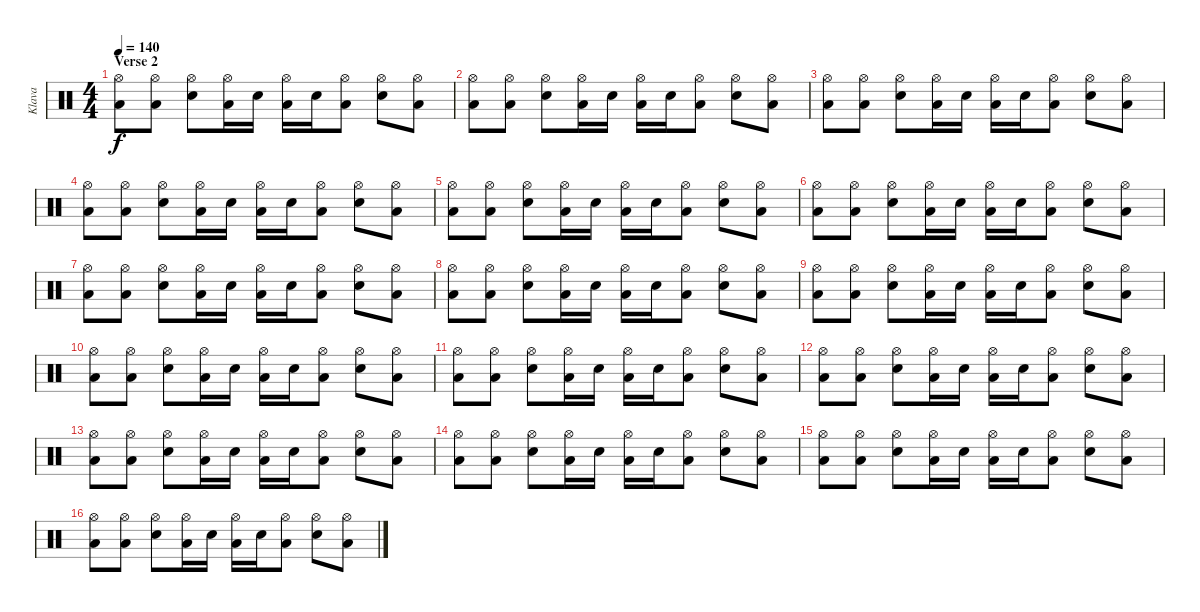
\track ("Klava" "Klava") {instrument percussion}
\staff {score}
\articulation defaults
\ts (4 4)
\section ("" "Verse 2")
\tempo 140
\clef neutral
\ks c
("Low Tom (hit)" "Hi-Hat (open)").8{dy f} ("Low Tom (hit)" "Hi-Hat (open)").8 ("Electric Snare (hit)" "Hi-Hat (open)").8 ("Low Tom (hit)" "Hi-Hat (open)").16 "Electric Snare (hit)".16 ("Low Tom (hit)" "Hi-Hat (open)").16 "Electric Snare (hit)".16 ("Low Tom (hit)" "Hi-Hat (open)").8 ("Electric Snare (hit)" "Hi-Hat (open)").8 ("Low Tom (hit)" "Hi-Hat (open)").8 |
("Low Tom (hit)" "Hi-Hat (open)").8 ("Low Tom (hit)" "Hi-Hat (open)").8 ("Electric Snare (hit)" "Hi-Hat (open)").8 ("Low Tom (hit)" "Hi-Hat (open)").16 "Electric Snare (hit)".16 ("Low Tom (hit)" "Hi-Hat (open)").16 "Electric Snare (hit)".16 ("Low Tom (hit)" "Hi-Hat (open)").8 ("Electric Snare (hit)" "Hi-Hat (open)").8 ("Low Tom (hit)" "Hi-Hat (open)").8 |
("Low Tom (hit)" "Hi-Hat (open)").8 ("Low Tom (hit)" "Hi-Hat (open)").8 ("Electric Snare (hit)" "Hi-Hat (open)").8 ("Low Tom (hit)" "Hi-Hat (open)").16 "Electric Snare (hit)".16 ("Low Tom (hit)" "Hi-Hat (open)").16 "Electric Snare (hit)".16 ("Low Tom (hit)" "Hi-Hat (open)").8 ("Electric Snare (hit)" "Hi-Hat (open)").8 ("Low Tom (hit)" "Hi-Hat (open)").8 |
("Low Tom (hit)" "Hi-Hat (open)").8 ("Low Tom (hit)" "Hi-Hat (open)").8 ("Electric Snare (hit)" "Hi-Hat (open)").8 ("Low Tom (hit)" "Hi-Hat (open)").16 "Electric Snare (hit)".16 ("Low Tom (hit)" "Hi-Hat (open)").16 "Electric Snare (hit)".16 ("Low Tom (hit)" "Hi-Hat (open)").8 ("Electric Snare (hit)" "Hi-Hat (open)").8 ("Low Tom (hit)" "Hi-Hat (open)").8 |
("Low Tom (hit)" "Hi-Hat (open)").8 ("Low Tom (hit)" "Hi-Hat (open)").8 ("Electric Snare (hit)" "Hi-Hat (open)").8 ("Low Tom (hit)" "Hi-Hat (open)").16 "Electric Snare (hit)".16 ("Low Tom (hit)" "Hi-Hat (open)").16 "Electric Snare (hit)".16 ("Low Tom (hit)" "Hi-Hat (open)").8 ("Electric Snare (hit)" "Hi-Hat (open)").8 ("Low Tom (hit)" "Hi-Hat (open)").8 |
("Low Tom (hit)" "Hi-Hat (open)").8 ("Low Tom (hit)" "Hi-Hat (open)").8 ("Electric Snare (hit)" "Hi-Hat (open)").8 ("Low Tom (hit)" "Hi-Hat (open)").16 "Electric Snare (hit)".16 ("Low Tom (hit)" "Hi-Hat (open)").16 "Electric Snare (hit)".16 ("Low Tom (hit)" "Hi-Hat (open)").8 ("Electric Snare (hit)" "Hi-Hat (open)").8 ("Low Tom (hit)" "Hi-Hat (open)").8 |
("Low Tom (hit)" "Hi-Hat (open)").8 ("Low Tom (hit)" "Hi-Hat (open)").8 ("Electric Snare (hit)" "Hi-Hat (open)").8 ("Low Tom (hit)" "Hi-Hat (open)").16 "Electric Snare (hit)".16 ("Low Tom (hit)" "Hi-Hat (open)").16 "Electric Snare (hit)".16 ("Low Tom (hit)" "Hi-Hat (open)").8 ("Electric Snare (hit)" "Hi-Hat (open)").8 ("Low Tom (hit)" "Hi-Hat (open)").8 |
("Low Tom (hit)" "Hi-Hat (open)").8 ("Low Tom (hit)" "Hi-Hat (open)").8 ("Electric Snare (hit)" "Hi-Hat (open)").8 ("Low Tom (hit)" "Hi-Hat (open)").16 "Electric Snare (hit)".16 ("Low Tom (hit)" "Hi-Hat (open)").16 "Electric Snare (hit)".16 ("Low Tom (hit)" "Hi-Hat (open)").8 ("Electric Snare (hit)" "Hi-Hat (open)").8 ("Low Tom (hit)" "Hi-Hat (open)").8 |
("Low Tom (hit)" "Hi-Hat (open)").8 ("Low Tom (hit)" "Hi-Hat (open)").8 ("Electric Snare (hit)" "Hi-Hat (open)").8 ("Low Tom (hit)" "Hi-Hat (open)").16 "Electric Snare (hit)".16 ("Low Tom (hit)" "Hi-Hat (open)").16 "Electric Snare (hit)".16 ("Low Tom (hit)" "Hi-Hat (open)").8 ("Electric Snare (hit)" "Hi-Hat (open)").8 ("Low Tom (hit)" "Hi-Hat (open)").8 |
("Low Tom (hit)" "Hi-Hat (open)").8 ("Low Tom (hit)" "Hi-Hat (open)").8 ("Electric Snare (hit)" "Hi-Hat (open)").8 ("Low Tom (hit)" "Hi-Hat (open)").16 "Electric Snare (hit)".16 ("Low Tom (hit)" "Hi-Hat (open)").16 "Electric Snare (hit)".16 ("Low Tom (hit)" "Hi-Hat (open)").8 ("Electric Snare (hit)" "Hi-Hat (open)").8 ("Low Tom (hit)" "Hi-Hat (open)").8 |
("Low Tom (hit)" "Hi-Hat (open)").8 ("Low Tom (hit)" "Hi-Hat (open)").8 ("Electric Snare (hit)" "Hi-Hat (open)").8 ("Low Tom (hit)" "Hi-Hat (open)").16 "Electric Snare (hit)".16 ("Low Tom (hit)" "Hi-Hat (open)").16 "Electric Snare (hit)".16 ("Low Tom (hit)" "Hi-Hat (open)").8 ("Electric Snare (hit)" "Hi-Hat (open)").8 ("Low Tom (hit)" "Hi-Hat (open)").8 |
("Low Tom (hit)" "Hi-Hat (open)").8 ("Low Tom (hit)" "Hi-Hat (open)").8 ("Electric Snare (hit)" "Hi-Hat (open)").8 ("Low Tom (hit)" "Hi-Hat (open)").16 "Electric Snare (hit)".16 ("Low Tom (hit)" "Hi-Hat (open)").16 "Electric Snare (hit)".16 ("Low Tom (hit)" "Hi-Hat (open)").8 ("Electric Snare (hit)" "Hi-Hat (open)").8 ("Low Tom (hit)" "Hi-Hat (open)").8 |
("Low Tom (hit)" "Hi-Hat (open)").8 ("Low Tom (hit)" "Hi-Hat (open)").8 ("Electric Snare (hit)" "Hi-Hat (open)").8 ("Low Tom (hit)" "Hi-Hat (open)").16 "Electric Snare (hit)".16 ("Low Tom (hit)" "Hi-Hat (open)").16 "Electric Snare (hit)".16 ("Low Tom (hit)" "Hi-Hat (open)").8 ("Electric Snare (hit)" "Hi-Hat (open)").8 ("Low Tom (hit)" "Hi-Hat (open)").8 |
("Low Tom (hit)" "Hi-Hat (open)").8 ("Low Tom (hit)" "Hi-Hat (open)").8 ("Electric Snare (hit)" "Hi-Hat (open)").8 ("Low Tom (hit)" "Hi-Hat (open)").16 "Electric Snare (hit)".16 ("Low Tom (hit)" "Hi-Hat (open)").16 "Electric Snare (hit)".16 ("Low Tom (hit)" "Hi-Hat (open)").8 ("Electric Snare (hit)" "Hi-Hat (open)").8 ("Low Tom (hit)" "Hi-Hat (open)").8 |
("Low Tom (hit)" "Hi-Hat (open)").8 ("Low Tom (hit)" "Hi-Hat (open)").8 ("Electric Snare (hit)" "Hi-Hat (open)").8 ("Low Tom (hit)" "Hi-Hat (open)").16 "Electric Snare (hit)".16 ("Low Tom (hit)" "Hi-Hat (open)").16 "Electric Snare (hit)".16 ("Low Tom (hit)" "Hi-Hat (open)").8 ("Electric Snare (hit)" "Hi-Hat (open)").8 ("Low Tom (hit)" "Hi-Hat (open)").8 |
("Low Tom (hit)" "Hi-Hat (open)").8 ("Low Tom (hit)" "Hi-Hat (open)").8 ("Electric Snare (hit)" "Hi-Hat (open)").8 ("Low Tom (hit)" "Hi-Hat (open)").16 "Electric Snare (hit)".16 ("Low Tom (hit)" "Hi-Hat (open)").16 "Electric Snare (hit)".16 ("Low Tom (hit)" "Hi-Hat (open)").8 ("Electric Snare (hit)" "Hi-Hat (open)").8 ("Low Tom (hit)" "Hi-Hat (open)").8
